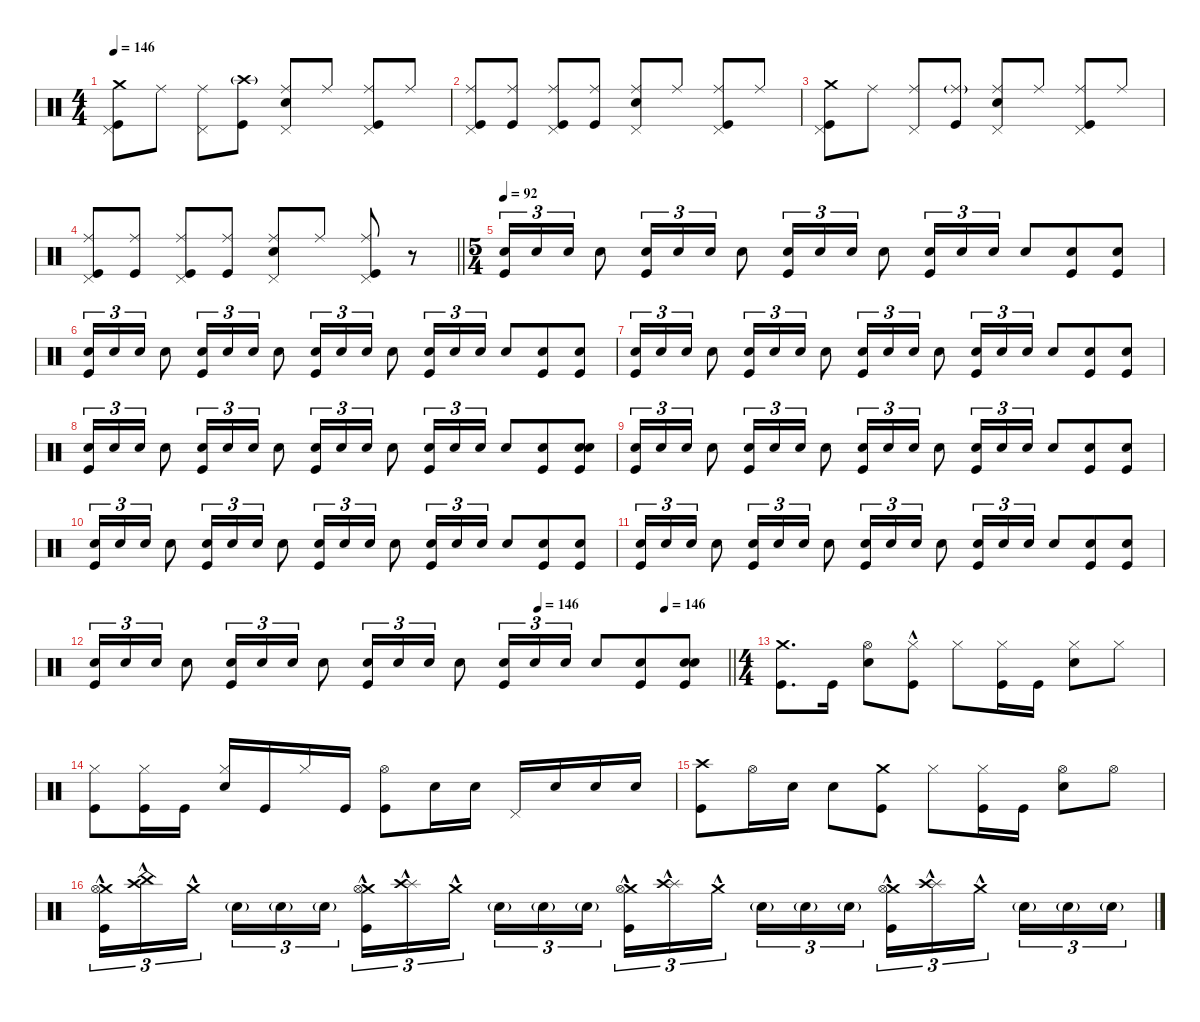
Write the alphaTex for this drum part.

\defaultSystemsLayout 4
\hideDynamics
\bracketExtendMode nobrackets
\singleTrackTrackNamePolicy hidden
\multiTrackTrackNamePolicy hidden
\firstSystemTrackNameMode fullname
\firstSystemTrackNameOrientation horizontal
\otherSystemsTrackNameOrientation horizontal
\track ("Drums" "drm.") {instrument percussion}
\staff {score}
\articulation defaults
\ts (4 4)
\tempo 146
\clef neutral
\ks c
("Crash medium (hit)" "Pedal Hi-Hat (hit)" "Kick (hit)").8{dy f beam Down} "Ride (middle)".8{beam Down} ("Ride (middle)" "Pedal Hi-Hat (hit)").8{beam Down} ("Crash high (hit)"{g} "Kick (hit)").8{beam Down} ("Ride (middle)" "Pedal Hi-Hat (hit)" "Snare (hit) 2").8{beam Up} "Ride (middle)".8{beam Up} ("Ride (middle)" "Pedal Hi-Hat (hit)" "Kick (hit)").8{beam Up} "Ride (middle)".8{beam Up} |
("Ride (middle)" "Pedal Hi-Hat (hit)" "Kick (hit)").8{beam Up} ("Ride (middle)" "Kick (hit)").8{beam Up} ("Ride (middle)" "Pedal Hi-Hat (hit)" "Kick (hit)").8{beam Up} ("Ride (middle)" "Kick (hit)").8{beam Up} ("Ride (middle)" "Pedal Hi-Hat (hit)" "Snare (hit) 2").8{beam Up} "Ride (middle)".8{beam Up} ("Ride (middle)" "Pedal Hi-Hat (hit)" "Kick (hit)").8{beam Up} "Ride (middle)".8{beam Up} |
("Crash medium (hit)" "Pedal Hi-Hat (hit)" "Kick (hit)").8{beam Down} "Ride (middle)".8{beam Down} ("Ride (middle)" "Pedal Hi-Hat (hit)").8{beam Up} ("Ride (middle)"{g} "Kick (hit)").8{beam Up} ("Ride (middle)" "Pedal Hi-Hat (hit)" "Snare (hit) 2").8{beam Up} "Ride (middle)".8{beam Up} ("Ride (middle)" "Pedal Hi-Hat (hit)" "Kick (hit)").8{beam Up} "Ride (middle)".8{beam Up} |
\barLineRight lightlight
("Ride (middle)" "Pedal Hi-Hat (hit)" "Kick (hit)").8{beam Up} ("Ride (middle)" "Kick (hit)").8{beam Up} ("Ride (middle)" "Pedal Hi-Hat (hit)" "Kick (hit)").8{beam Up} ("Ride (middle)" "Kick (hit)").8{beam Up} ("Ride (middle)" "Pedal Hi-Hat (hit)" "Snare (hit) 2").8{beam Up} "Ride (middle)".8{beam Up} ("Ride (middle)" "Pedal Hi-Hat (hit)" "Kick (hit)").8{beam Up} r.8{beam Up} |
\ts (5 4)
\beaming (8 6 4)
\tempo 92
("Snare (hit) 2" "Kick (hit)").16{tu (3 2) beam Up} "Snare (hit) 2".16{tu (3 2) beam Up} "Snare (hit) 2".16{tu (3 2) beam Up} "Snare (hit) 2".8{beam Down} ("Snare (hit) 2" "Kick (hit)").16{tu (3 2) beam Up} "Snare (hit) 2".16{tu (3 2) beam Up} "Snare (hit) 2".16{tu (3 2) beam Up} "Snare (hit) 2".8{beam Down} ("Snare (hit) 2" "Kick (hit)").16{tu (3 2) beam Up} "Snare (hit) 2".16{tu (3 2) beam Up} "Snare (hit) 2".16{tu (3 2) beam Up} "Snare (hit) 2".8{beam Down} ("Snare (hit) 2" "Kick (hit)").16{tu (3 2) beam Up} "Snare (hit) 2".16{tu (3 2) beam Up} "Snare (hit) 2".16{tu (3 2) beam Up} "Snare (hit) 2".8{beam Up} ("Snare (hit) 2" "Kick (hit)").8{beam Up} ("Snare (hit) 2" "Kick (hit)").8{beam Up} |
("Snare (hit) 2" "Kick (hit)").16{tu (3 2) beam Up} "Snare (hit) 2".16{tu (3 2) beam Up} "Snare (hit) 2".16{tu (3 2) beam Up} "Snare (hit) 2".8{beam Down} ("Snare (hit) 2" "Kick (hit)").16{tu (3 2) beam Up} "Snare (hit) 2".16{tu (3 2) beam Up} "Snare (hit) 2".16{tu (3 2) beam Up} "Snare (hit) 2".8{beam Down} ("Snare (hit) 2" "Kick (hit)").16{tu (3 2) beam Up} "Snare (hit) 2".16{tu (3 2) beam Up} "Snare (hit) 2".16{tu (3 2) beam Up} "Snare (hit) 2".8{beam Down} ("Snare (hit) 2" "Kick (hit)").16{tu (3 2) beam Up} "Snare (hit) 2".16{tu (3 2) beam Up} "Snare (hit) 2".16{tu (3 2) beam Up} "Snare (hit) 2".8{beam Up} ("Snare (hit) 2" "Kick (hit)").8{beam Up} ("Snare (hit) 2" "Kick (hit)").8{beam Up} |
("Snare (hit) 2" "Kick (hit)").16{tu (3 2) beam Up} "Snare (hit) 2".16{tu (3 2) beam Up} "Snare (hit) 2".16{tu (3 2) beam Up} "Snare (hit) 2".8{beam Down} ("Snare (hit) 2" "Kick (hit)").16{tu (3 2) beam Up} "Snare (hit) 2".16{tu (3 2) beam Up} "Snare (hit) 2".16{tu (3 2) beam Up} "Snare (hit) 2".8{beam Down} ("Snare (hit) 2" "Kick (hit)").16{tu (3 2) beam Up} "Snare (hit) 2".16{tu (3 2) beam Up} "Snare (hit) 2".16{tu (3 2) beam Up} "Snare (hit) 2".8{beam Down} ("Snare (hit) 2" "Kick (hit)").16{tu (3 2) beam Up} "Snare (hit) 2".16{tu (3 2) beam Up} "Snare (hit) 2".16{tu (3 2) beam Up} "Snare (hit) 2".8{beam Up} ("Snare (hit) 2" "Kick (hit)").8{beam Up} ("Snare (hit) 2" "Kick (hit)").8{beam Up} |
("Snare (hit) 2" "Kick (hit)").16{tu (3 2) beam Up} "Snare (hit) 2".16{tu (3 2) beam Up} "Snare (hit) 2".16{tu (3 2) beam Up} "Snare (hit) 2".8{beam Down} ("Snare (hit) 2" "Kick (hit)").16{tu (3 2) beam Up} "Snare (hit) 2".16{tu (3 2) beam Up} "Snare (hit) 2".16{tu (3 2) beam Up} "Snare (hit) 2".8{beam Down} ("Snare (hit) 2" "Kick (hit)").16{tu (3 2) beam Up} "Snare (hit) 2".16{tu (3 2) beam Up} "Snare (hit) 2".16{tu (3 2) beam Up} "Snare (hit) 2".8{beam Down} ("Snare (hit) 2" "Kick (hit)").16{tu (3 2) beam Up} "Snare (hit) 2".16{tu (3 2) beam Up} "Snare (hit) 2".16{tu (3 2) beam Up} "Snare (hit) 2".8{beam Up} ("Snare (hit) 2" "Kick (hit)").8{beam Up} ("Snare (hit) 2" "Snare (hit) 2" "Kick (hit)").8{beam Up} |
("Snare (hit) 2" "Kick (hit)").16{tu (3 2) beam Up} "Snare (hit) 2".16{tu (3 2) beam Up} "Snare (hit) 2".16{tu (3 2) beam Up} "Snare (hit) 2".8{beam Down} ("Snare (hit) 2" "Kick (hit)").16{tu (3 2) beam Up} "Snare (hit) 2".16{tu (3 2) beam Up} "Snare (hit) 2".16{tu (3 2) beam Up} "Snare (hit) 2".8{beam Down} ("Snare (hit) 2" "Kick (hit)").16{tu (3 2) beam Up} "Snare (hit) 2".16{tu (3 2) beam Up} "Snare (hit) 2".16{tu (3 2) beam Up} "Snare (hit) 2".8{beam Down} ("Snare (hit) 2" "Kick (hit)").16{tu (3 2) beam Up} "Snare (hit) 2".16{tu (3 2) beam Up} "Snare (hit) 2".16{tu (3 2) beam Up} "Snare (hit) 2".8{beam Up} ("Snare (hit) 2" "Kick (hit)").8{beam Up} ("Snare (hit) 2" "Kick (hit)").8{beam Up} |
("Snare (hit) 2" "Kick (hit)").16{tu (3 2) beam Up} "Snare (hit) 2".16{tu (3 2) beam Up} "Snare (hit) 2".16{tu (3 2) beam Up} "Snare (hit) 2".8{beam Down} ("Snare (hit) 2" "Kick (hit)").16{tu (3 2) beam Up} "Snare (hit) 2".16{tu (3 2) beam Up} "Snare (hit) 2".16{tu (3 2) beam Up} "Snare (hit) 2".8{beam Down} ("Snare (hit) 2" "Kick (hit)").16{tu (3 2) beam Up} "Snare (hit) 2".16{tu (3 2) beam Up} "Snare (hit) 2".16{tu (3 2) beam Up} "Snare (hit) 2".8{beam Down} ("Snare (hit) 2" "Kick (hit)").16{tu (3 2) beam Up} "Snare (hit) 2".16{tu (3 2) beam Up} "Snare (hit) 2".16{tu (3 2) beam Up} "Snare (hit) 2".8{beam Up} ("Snare (hit) 2" "Kick (hit)").8{beam Up} ("Snare (hit) 2" "Kick (hit)").8{beam Up} |
("Snare (hit) 2" "Kick (hit)").16{tu (3 2) beam Up} "Snare (hit) 2".16{tu (3 2) beam Up} "Snare (hit) 2".16{tu (3 2) beam Up} "Snare (hit) 2".8{beam Down} ("Snare (hit) 2" "Kick (hit)").16{tu (3 2) beam Up} "Snare (hit) 2".16{tu (3 2) beam Up} "Snare (hit) 2".16{tu (3 2) beam Up} "Snare (hit) 2".8{beam Down} ("Snare (hit) 2" "Kick (hit)").16{tu (3 2) beam Up} "Snare (hit) 2".16{tu (3 2) beam Up} "Snare (hit) 2".16{tu (3 2) beam Up} "Snare (hit) 2".8{beam Down} ("Snare (hit) 2" "Kick (hit)").16{tu (3 2) beam Up} "Snare (hit) 2".16{tu (3 2) beam Up} "Snare (hit) 2".16{tu (3 2) beam Up} "Snare (hit) 2".8{beam Up} ("Snare (hit) 2" "Kick (hit)").8{beam Up} ("Snare (hit) 2" "Kick (hit)").8{beam Up} |
\tempo (146 0.7)
\tempo (146 0.9)
\barLineRight lightlight
("Snare (hit) 2" "Kick (hit)").16{tu (3 2) beam Up} "Snare (hit) 2".16{tu (3 2) beam Up} "Snare (hit) 2".16{tu (3 2) beam Up} "Snare (hit) 2".8{beam Down} ("Snare (hit) 2" "Kick (hit)").16{tu (3 2) beam Up} "Snare (hit) 2".16{tu (3 2) beam Up} "Snare (hit) 2".16{tu (3 2) beam Up} "Snare (hit) 2".8{beam Down} ("Snare (hit) 2" "Kick (hit)").16{tu (3 2) beam Up} "Snare (hit) 2".16{tu (3 2) beam Up} "Snare (hit) 2".16{tu (3 2) beam Up} "Snare (hit) 2".8{beam Down} ("Snare (hit) 2" "Kick (hit)").16{tu (3 2) beam Up} "Snare (hit) 2".16{tu (3 2) beam Up} "Snare (hit) 2".16{tu (3 2) beam Up} "Snare (hit) 2".8{beam Up} ("Snare (hit) 2" "Kick (hit)").8{beam Up} ("Snare (hit) 2" "Snare (hit) 2" "Kick (hit)").8{beam Up} |
\ts (4 4)
\beaming (8 2 2 2 2)
("Crash medium (hit)" "Kick (hit)").8{d beam Down} "Kick (hit)".16{beam Down} ("Hi-Hat (open)" "Snare (hit) 2").8{beam Down} ("Hi-Hat (closed)"{hac} "Kick (hit)"{hac}).8{beam Down} "Hi-Hat (closed)".8{beam Down} ("Hi-Hat (closed)" "Kick (hit)").16{beam Down} "Kick (hit)".16{beam Down} ("Hi-Hat (closed)" "Snare (hit) 2").8{beam Down} "Hi-Hat (closed)".8{beam Down} |
("Hi-Hat (closed)" "Kick (hit)").8{beam Down} ("Hi-Hat (closed)" "Kick (hit)").16{beam Down} "Kick (hit)".16{beam Down} ("Hi-Hat (closed)" "Snare (hit) 2").16{beam Up} "Kick (hit)".16{beam Up} "Hi-Hat (closed)".16{beam Up} "Kick (hit)".16{beam Up} ("Hi-Hat (open)" "Kick (hit)").8{beam Down} "Snare (hit) 2".16{beam Down} "Snare (hit) 2".16{beam Down} "Pedal Hi-Hat (hit)".16{beam Up} "Snare (hit) 2".16{beam Up} "Snare (hit) 2".16{beam Up} "Snare (hit) 2".16{beam Up} |
("Crash high (hit)" "Kick (hit)").8{beam Down} "Hi-Hat (open)".16{beam Down} "Snare (hit) 2".16{beam Down} "Snare (hit) 2".8{beam Down} ("Crash medium (hit)" "Kick (hit)").8{beam Down} "Hi-Hat (closed)".8{beam Down} ("Hi-Hat (closed)" "Kick (hit)").16{beam Down} "Kick (hit)".16{beam Down} ("Hi-Hat (open)" "Snare (hit) 2").8{beam Down} "Hi-Hat (open)".8{beam Down} |
("Crash medium (hit)"{hac} "Hi-Hat (open)"{hac} "Kick (hit)"{hac}).16{tu (3 2) beam Down} ("China (hit)"{hac} "Crash high (hit)"{hac}).16{tu (3 2) beam Down} "Crash medium (hit)"{hac}.16{tu (3 2) beam Down} "Snare (hit) 2"{g}.16{tu (3 2) dy mf beam Down} "Snare (hit) 2"{g}.16{tu (3 2) beam Down} "Snare (hit) 2"{g}.16{tu (3 2) beam Down} ("Crash medium (hit)"{hac} "Hi-Hat (open)"{hac} "Kick (hit)"{hac}).16{tu (3 2) dy f beam Down} ("Splash (hit)"{hac} "Crash high (hit)"{hac}).16{tu (3 2) beam Down} "Crash medium (hit)"{hac}.16{tu (3 2) beam Down} "Snare (hit) 2"{g}.16{tu (3 2) dy mf beam Down} "Snare (hit) 2"{g}.16{tu (3 2) beam Down} "Snare (hit) 2"{g}.16{tu (3 2) beam Down} ("Crash medium (hit)"{hac} "Hi-Hat (open)"{hac} "Kick (hit)"{hac}).16{tu (3 2) dy f beam Down} ("Splash (hit)"{hac} "Crash high (hit)"{hac}).16{tu (3 2) beam Down} "Crash medium (hit)"{hac}.16{tu (3 2) beam Down} "Snare (hit) 2"{g}.16{tu (3 2) dy mf beam Down} "Snare (hit) 2"{g}.16{tu (3 2) beam Down} "Snare (hit) 2"{g}.16{tu (3 2) beam Down} ("Crash medium (hit)"{hac} "Hi-Hat (open)"{hac} "Kick (hit)"{hac}).16{tu (3 2) dy f beam Down} ("Splash (hit)"{hac} "Crash high (hit)"{hac}).16{tu (3 2) beam Down} "Crash medium (hit)"{hac}.16{tu (3 2) beam Down} "Snare (hit) 2"{g}.16{tu (3 2) dy mf beam Down} "Snare (hit) 2"{g}.16{tu (3 2) beam Down} "Snare (hit) 2"{g}.16{tu (3 2) beam Down}
